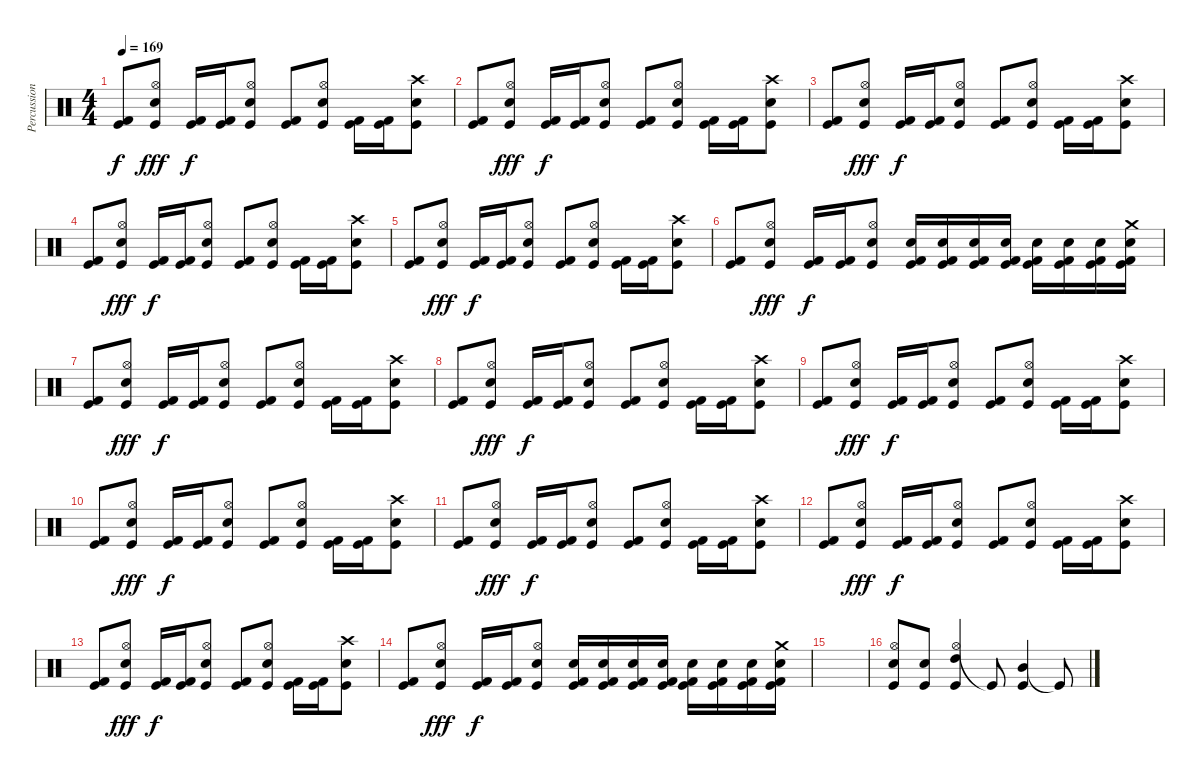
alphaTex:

\track ("Percussion" "Percussion") {instrument percussion}
\staff {score}
\articulation defaults
\ts (4 4)
\tempo 169
\clef neutral
\ks c
("Kick (hit) 2" "Kick (hit)").8{dy f} ("Hi-Hat (open)" "Electric Snare (hit)" "Kick (hit)").8{dy fff} ("Kick (hit) 2" "Kick (hit)").16{dy f} ("Kick (hit) 2" "Kick (hit)").16 ("Hi-Hat (open)" "Electric Snare (hit)" "Kick (hit)").8 ("Kick (hit) 2" "Kick (hit)").8 ("Hi-Hat (open)" "Electric Snare (hit)" "Kick (hit)").8 ("Kick (hit) 2" "Kick (hit)").16 ("Kick (hit) 2" "Kick (hit)").16 ("Crash high (hit)" "Electric Snare (hit)" "Kick (hit)").8 |
("Kick (hit) 2" "Kick (hit)").8 ("Hi-Hat (open)" "Electric Snare (hit)" "Kick (hit)").8{dy fff} ("Kick (hit) 2" "Kick (hit)").16{dy f} ("Kick (hit) 2" "Kick (hit)").16 ("Hi-Hat (open)" "Electric Snare (hit)" "Kick (hit)").8 ("Kick (hit) 2" "Kick (hit)").8 ("Hi-Hat (open)" "Electric Snare (hit)" "Kick (hit)").8 ("Kick (hit) 2" "Kick (hit)").16 ("Kick (hit) 2" "Kick (hit)").16 ("Crash high (hit)" "Electric Snare (hit)" "Kick (hit)").8 |
("Kick (hit) 2" "Kick (hit)").8 ("Hi-Hat (open)" "Electric Snare (hit)" "Kick (hit)").8{dy fff} ("Kick (hit) 2" "Kick (hit)").16{dy f} ("Kick (hit) 2" "Kick (hit)").16 ("Hi-Hat (open)" "Electric Snare (hit)" "Kick (hit)").8 ("Kick (hit) 2" "Kick (hit)").8 ("Hi-Hat (open)" "Electric Snare (hit)" "Kick (hit)").8 ("Kick (hit) 2" "Kick (hit)").16 ("Kick (hit) 2" "Kick (hit)").16 ("Crash high (hit)" "Electric Snare (hit)" "Kick (hit)").8 |
("Kick (hit) 2" "Kick (hit)").8 ("Hi-Hat (open)" "Electric Snare (hit)" "Kick (hit)").8{dy fff} ("Kick (hit) 2" "Kick (hit)").16{dy f} ("Kick (hit) 2" "Kick (hit)").16 ("Hi-Hat (open)" "Electric Snare (hit)" "Kick (hit)").8 ("Kick (hit) 2" "Kick (hit)").8 ("Hi-Hat (open)" "Electric Snare (hit)" "Kick (hit)").8 ("Kick (hit) 2" "Kick (hit)").16 ("Kick (hit) 2" "Kick (hit)").16 ("Crash high (hit)" "Electric Snare (hit)" "Kick (hit)").8 |
("Kick (hit) 2" "Kick (hit)").8 ("Hi-Hat (open)" "Electric Snare (hit)" "Kick (hit)").8{dy fff} ("Kick (hit) 2" "Kick (hit)").16{dy f} ("Kick (hit) 2" "Kick (hit)").16 ("Hi-Hat (open)" "Electric Snare (hit)" "Kick (hit)").8 ("Kick (hit) 2" "Kick (hit)").8 ("Hi-Hat (open)" "Electric Snare (hit)" "Kick (hit)").8 ("Kick (hit) 2" "Kick (hit)").16 ("Kick (hit) 2" "Kick (hit)").16 ("Crash high (hit)" "Electric Snare (hit)" "Kick (hit)").8 |
("Kick (hit) 2" "Kick (hit)").8 ("Hi-Hat (open)" "Electric Snare (hit)" "Kick (hit)").8{dy fff} ("Kick (hit) 2" "Kick (hit)").16{dy f} ("Kick (hit) 2" "Kick (hit)").16 ("Hi-Hat (open)" "Electric Snare (hit)" "Kick (hit)").8 ("Snare (hit) 2" "Kick (hit) 2" "Kick (hit)").16 ("Snare (hit) 2" "Kick (hit) 2" "Kick (hit)").16 ("Snare (hit) 2" "Kick (hit) 2" "Kick (hit)").16 ("Snare (hit) 2" "Kick (hit) 2" "Kick (hit)").16 ("Snare (hit) 2" "Kick (hit) 2" "Kick (hit)").16 ("Snare (hit) 2" "Kick (hit) 2" "Kick (hit)").16 ("Snare (hit) 2" "Kick (hit) 2" "Kick (hit)").16 ("Crash medium (hit)" "Snare (hit) 2" "Kick (hit) 2" "Kick (hit)").16 |
("Kick (hit) 2" "Kick (hit)").8 ("Hi-Hat (open)" "Electric Snare (hit)" "Kick (hit)").8{dy fff} ("Kick (hit) 2" "Kick (hit)").16{dy f} ("Kick (hit) 2" "Kick (hit)").16 ("Hi-Hat (open)" "Electric Snare (hit)" "Kick (hit)").8 ("Kick (hit) 2" "Kick (hit)").8 ("Hi-Hat (open)" "Electric Snare (hit)" "Kick (hit)").8 ("Kick (hit) 2" "Kick (hit)").16 ("Kick (hit) 2" "Kick (hit)").16 ("Crash high (hit)" "Electric Snare (hit)" "Kick (hit)").8 |
("Kick (hit) 2" "Kick (hit)").8 ("Hi-Hat (open)" "Electric Snare (hit)" "Kick (hit)").8{dy fff} ("Kick (hit) 2" "Kick (hit)").16{dy f} ("Kick (hit) 2" "Kick (hit)").16 ("Hi-Hat (open)" "Electric Snare (hit)" "Kick (hit)").8 ("Kick (hit) 2" "Kick (hit)").8 ("Hi-Hat (open)" "Electric Snare (hit)" "Kick (hit)").8 ("Kick (hit) 2" "Kick (hit)").16 ("Kick (hit) 2" "Kick (hit)").16 ("Crash high (hit)" "Electric Snare (hit)" "Kick (hit)").8 |
("Kick (hit) 2" "Kick (hit)").8 ("Hi-Hat (open)" "Electric Snare (hit)" "Kick (hit)").8{dy fff} ("Kick (hit) 2" "Kick (hit)").16{dy f} ("Kick (hit) 2" "Kick (hit)").16 ("Hi-Hat (open)" "Electric Snare (hit)" "Kick (hit)").8 ("Kick (hit) 2" "Kick (hit)").8 ("Hi-Hat (open)" "Electric Snare (hit)" "Kick (hit)").8 ("Kick (hit) 2" "Kick (hit)").16 ("Kick (hit) 2" "Kick (hit)").16 ("Crash high (hit)" "Electric Snare (hit)" "Kick (hit)").8 |
("Kick (hit) 2" "Kick (hit)").8 ("Hi-Hat (open)" "Electric Snare (hit)" "Kick (hit)").8{dy fff} ("Kick (hit) 2" "Kick (hit)").16{dy f} ("Kick (hit) 2" "Kick (hit)").16 ("Hi-Hat (open)" "Electric Snare (hit)" "Kick (hit)").8 ("Kick (hit) 2" "Kick (hit)").8 ("Hi-Hat (open)" "Electric Snare (hit)" "Kick (hit)").8 ("Kick (hit) 2" "Kick (hit)").16 ("Kick (hit) 2" "Kick (hit)").16 ("Crash high (hit)" "Electric Snare (hit)" "Kick (hit)").8 |
("Kick (hit) 2" "Kick (hit)").8 ("Hi-Hat (open)" "Electric Snare (hit)" "Kick (hit)").8{dy fff} ("Kick (hit) 2" "Kick (hit)").16{dy f} ("Kick (hit) 2" "Kick (hit)").16 ("Hi-Hat (open)" "Electric Snare (hit)" "Kick (hit)").8 ("Kick (hit) 2" "Kick (hit)").8 ("Hi-Hat (open)" "Electric Snare (hit)" "Kick (hit)").8 ("Kick (hit) 2" "Kick (hit)").16 ("Kick (hit) 2" "Kick (hit)").16 ("Crash high (hit)" "Electric Snare (hit)" "Kick (hit)").8 |
("Kick (hit) 2" "Kick (hit)").8 ("Hi-Hat (open)" "Electric Snare (hit)" "Kick (hit)").8{dy fff} ("Kick (hit) 2" "Kick (hit)").16{dy f} ("Kick (hit) 2" "Kick (hit)").16 ("Hi-Hat (open)" "Electric Snare (hit)" "Kick (hit)").8 ("Kick (hit) 2" "Kick (hit)").8 ("Hi-Hat (open)" "Electric Snare (hit)" "Kick (hit)").8 ("Kick (hit) 2" "Kick (hit)").16 ("Kick (hit) 2" "Kick (hit)").16 ("Crash high (hit)" "Electric Snare (hit)" "Kick (hit)").8 |
("Kick (hit) 2" "Kick (hit)").8 ("Hi-Hat (open)" "Electric Snare (hit)" "Kick (hit)").8{dy fff} ("Kick (hit) 2" "Kick (hit)").16{dy f} ("Kick (hit) 2" "Kick (hit)").16 ("Hi-Hat (open)" "Electric Snare (hit)" "Kick (hit)").8 ("Kick (hit) 2" "Kick (hit)").8 ("Hi-Hat (open)" "Electric Snare (hit)" "Kick (hit)").8 ("Kick (hit) 2" "Kick (hit)").16 ("Kick (hit) 2" "Kick (hit)").16 ("Crash high (hit)" "Electric Snare (hit)" "Kick (hit)").8 |
("Kick (hit) 2" "Kick (hit)").8 ("Hi-Hat (open)" "Electric Snare (hit)" "Kick (hit)").8{dy fff} ("Kick (hit) 2" "Kick (hit)").16{dy f} ("Kick (hit) 2" "Kick (hit)").16 ("Hi-Hat (open)" "Electric Snare (hit)" "Kick (hit)").8 ("Snare (hit) 2" "Kick (hit) 2" "Kick (hit)").16 ("Snare (hit) 2" "Kick (hit) 2" "Kick (hit)").16 ("Snare (hit) 2" "Kick (hit) 2" "Kick (hit)").16 ("Snare (hit) 2" "Kick (hit) 2" "Kick (hit)").16 ("Snare (hit) 2" "Kick (hit) 2" "Kick (hit)").16 ("Snare (hit) 2" "Kick (hit) 2" "Kick (hit)").16 ("Snare (hit) 2" "Kick (hit) 2" "Kick (hit)").16 ("Crash medium (hit)" "Snare (hit) 2" "Kick (hit) 2" "Kick (hit)").16 |
|
("Hi-Hat (open)" "Electric Snare (hit)" "Kick (hit)").8 ("Electric Snare (hit)" "Kick (hit)").8 ("Hi-Hat (open)" "High Tom (hit)" "Kick (hit)").4 "Kick (hit)"{t}.8 ("Mid Tom (hit)" "Kick (hit)").4 "Kick (hit)"{t}.8
